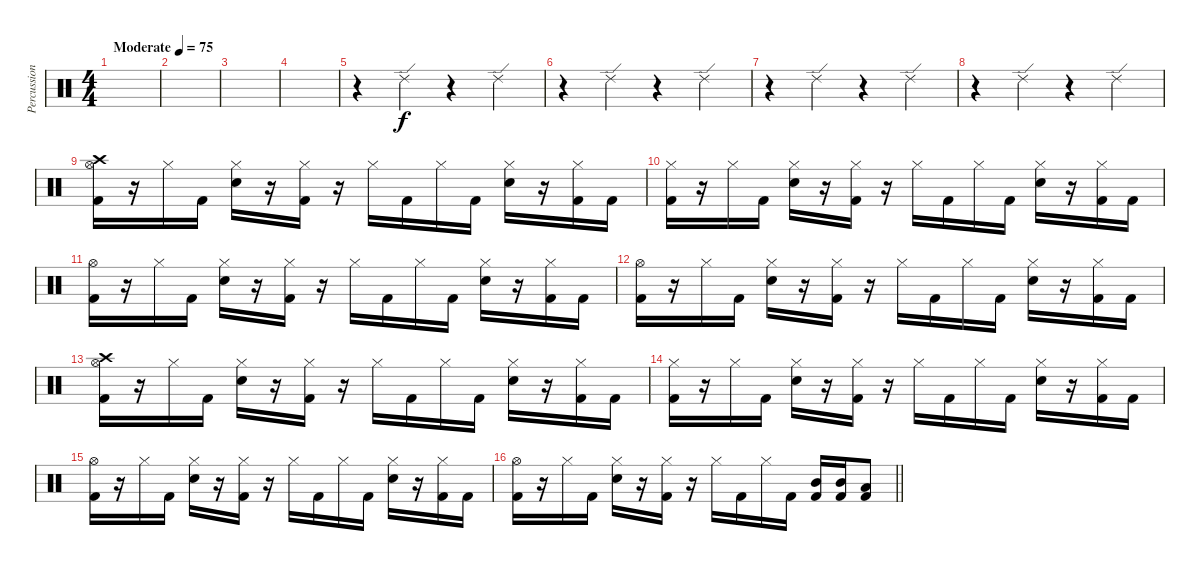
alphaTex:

\track ("Percussions" "Percussion") {instrument percussion}
\staff {score}
\articulation defaults
\ts (4 4)
\tempo (75 "Moderate")
\clef neutral
\ks c
|
|
|
|
r.4 "Ride (edge) 2".4 r.4 "Ride (edge) 2".4 |
r.4 "Ride (edge) 2".4 r.4 "Ride (edge) 2".4 |
r.4 "Ride (edge) 2".4 r.4 "Ride (edge) 2".4 |
r.4 "Ride (edge) 2".4 r.4 "Ride (edge) 2".4 |
("Crash high (hit)" "Hi-Hat (open)" "Kick (hit) 2").16 r.16 "Hi-Hat (closed)".16 "Kick (hit) 2".16 ("Hi-Hat (closed)" "Snare (hit) 2").16 r.16 ("Hi-Hat (closed)" "Kick (hit) 2").16 r.16 "Hi-Hat (closed)".16 "Kick (hit) 2".16 "Hi-Hat (closed)".16 "Kick (hit) 2".16 ("Hi-Hat (closed)" "Snare (hit) 2").16 r.16 ("Hi-Hat (closed)" "Kick (hit) 2").16 "Kick (hit) 2".16 |
("Hi-Hat (closed)" "Kick (hit) 2").16 r.16 "Hi-Hat (closed)".16 "Kick (hit) 2".16 ("Hi-Hat (closed)" "Snare (hit) 2").16 r.16 ("Hi-Hat (closed)" "Kick (hit) 2").16 r.16 "Hi-Hat (closed)".16 "Kick (hit) 2".16 "Hi-Hat (closed)".16 "Kick (hit) 2".16 ("Hi-Hat (closed)" "Snare (hit) 2").16 r.16 ("Hi-Hat (closed)" "Kick (hit) 2").16 "Kick (hit) 2".16 |
("Hi-Hat (open)" "Kick (hit) 2").16 r.16 "Hi-Hat (closed)".16 "Kick (hit) 2".16 ("Hi-Hat (closed)" "Snare (hit) 2").16 r.16 ("Hi-Hat (closed)" "Kick (hit) 2").16 r.16 "Hi-Hat (closed)".16 "Kick (hit) 2".16 "Hi-Hat (closed)".16 "Kick (hit) 2".16 ("Hi-Hat (closed)" "Snare (hit) 2").16 r.16 ("Hi-Hat (closed)" "Kick (hit) 2").16 "Kick (hit) 2".16 |
("Hi-Hat (open)" "Kick (hit) 2").16 r.16 "Hi-Hat (closed)".16 "Kick (hit) 2".16 ("Hi-Hat (closed)" "Snare (hit) 2").16 r.16 ("Hi-Hat (closed)" "Kick (hit) 2").16 r.16 "Hi-Hat (closed)".16 "Kick (hit) 2".16 "Hi-Hat (closed)".16 "Kick (hit) 2".16 ("Hi-Hat (closed)" "Snare (hit) 2").16 r.16 ("Hi-Hat (closed)" "Kick (hit) 2").16 "Kick (hit) 2".16 |
("Crash high (hit)" "Hi-Hat (open)" "Kick (hit) 2").16 r.16 "Hi-Hat (closed)".16 "Kick (hit) 2".16 ("Hi-Hat (closed)" "Snare (hit) 2").16 r.16 ("Hi-Hat (closed)" "Kick (hit) 2").16 r.16 "Hi-Hat (closed)".16 "Kick (hit) 2".16 "Hi-Hat (closed)".16 "Kick (hit) 2".16 ("Hi-Hat (closed)" "Snare (hit) 2").16 r.16 ("Hi-Hat (closed)" "Kick (hit) 2").16 "Kick (hit) 2".16 |
("Hi-Hat (closed)" "Kick (hit) 2").16 r.16 "Hi-Hat (closed)".16 "Kick (hit) 2".16 ("Hi-Hat (closed)" "Snare (hit) 2").16 r.16 ("Hi-Hat (closed)" "Kick (hit) 2").16 r.16 "Hi-Hat (closed)".16 "Kick (hit) 2".16 "Hi-Hat (closed)".16 "Kick (hit) 2".16 ("Hi-Hat (closed)" "Snare (hit) 2").16 r.16 ("Hi-Hat (closed)" "Kick (hit) 2").16 "Kick (hit) 2".16 |
("Hi-Hat (open)" "Kick (hit) 2").16 r.16 "Hi-Hat (closed)".16 "Kick (hit) 2".16 ("Hi-Hat (closed)" "Snare (hit) 2").16 r.16 ("Hi-Hat (closed)" "Kick (hit) 2").16 r.16 "Hi-Hat (closed)".16 "Kick (hit) 2".16 "Hi-Hat (closed)".16 "Kick (hit) 2".16 ("Hi-Hat (closed)" "Snare (hit) 2").16 r.16 ("Hi-Hat (closed)" "Kick (hit) 2").16 "Kick (hit) 2".16 |
\barLineRight lightlight
("Hi-Hat (open)" "Kick (hit) 2").16 r.16 "Hi-Hat (closed)".16 "Kick (hit) 2".16 ("Hi-Hat (closed)" "Snare (hit) 2").16 r.16 ("Hi-Hat (closed)" "Kick (hit) 2").16 r.16 "Hi-Hat (closed)".16 "Kick (hit) 2".16 "Hi-Hat (closed)".16 "Kick (hit) 2".16 ("Mid Tom (hit)" "Kick (hit) 2").16 ("Mid Tom (hit)" "Kick (hit) 2").16 ("Low Tom (hit)" "Kick (hit) 2").8
